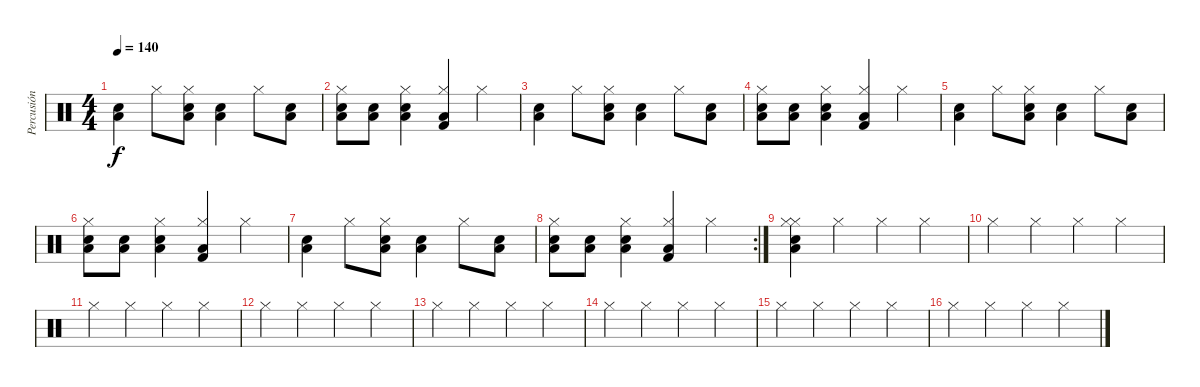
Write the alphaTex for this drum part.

\track ("Percusión" "Percusión") {instrument percussion}
\staff {score}
\articulation defaults
\ts (4 4)
\tempo 140
\clef neutral
\ks c
("Low Tom (hit)" "Snare (hit) 2").4{dy f} "Hi-Hat (closed)".8 ("Hi-Hat (closed)" "Snare (hit) 2" "Low Tom (hit)").8 ("Low Tom (hit)" "Snare (hit) 2").4 "Hi-Hat (closed)".8 ("Snare (hit) 2" "Low Tom (hit)").8 |
("Hi-Hat (closed)" "Snare (hit) 2" "Low Tom (hit)").8 ("Snare (hit) 2" "Low Tom (hit)").8 ("Snare (hit) 2" "Low Tom (hit)" "Hi-Hat (closed)").4 ("Low Tom (hit)" "Kick (hit) 2" "Hi-Hat (closed)").4 "Hi-Hat (closed)".4 |
("Low Tom (hit)" "Snare (hit) 2").4 "Hi-Hat (closed)".8 ("Hi-Hat (closed)" "Snare (hit) 2" "Low Tom (hit)").8 ("Low Tom (hit)" "Snare (hit) 2").4 "Hi-Hat (closed)".8 ("Snare (hit) 2" "Low Tom (hit)").8 |
("Hi-Hat (closed)" "Snare (hit) 2" "Low Tom (hit)").8 ("Snare (hit) 2" "Low Tom (hit)").8 ("Snare (hit) 2" "Low Tom (hit)" "Hi-Hat (closed)").4 ("Low Tom (hit)" "Kick (hit) 2" "Hi-Hat (closed)").4 "Hi-Hat (closed)".4 |
("Low Tom (hit)" "Snare (hit) 2").4 "Hi-Hat (closed)".8 ("Hi-Hat (closed)" "Snare (hit) 2" "Low Tom (hit)").8 ("Low Tom (hit)" "Snare (hit) 2").4 "Hi-Hat (closed)".8 ("Snare (hit) 2" "Low Tom (hit)").8 |
("Hi-Hat (closed)" "Snare (hit) 2" "Low Tom (hit)").8 ("Snare (hit) 2" "Low Tom (hit)").8 ("Snare (hit) 2" "Low Tom (hit)" "Hi-Hat (closed)").4 ("Low Tom (hit)" "Kick (hit) 2" "Hi-Hat (closed)").4 "Hi-Hat (closed)".4 |
("Low Tom (hit)" "Snare (hit) 2").4 "Hi-Hat (closed)".8 ("Hi-Hat (closed)" "Snare (hit) 2" "Low Tom (hit)").8 ("Low Tom (hit)" "Snare (hit) 2").4 "Hi-Hat (closed)".8 ("Snare (hit) 2" "Low Tom (hit)").8 |
\rc 2
("Hi-Hat (closed)" "Snare (hit) 2" "Low Tom (hit)").8 ("Snare (hit) 2" "Low Tom (hit)").8 ("Snare (hit) 2" "Low Tom (hit)" "Hi-Hat (closed)").4 ("Low Tom (hit)" "Kick (hit) 2" "Hi-Hat (closed)").4 "Hi-Hat (closed)".4 |
("Hi-Hat (closed)" "Low Tom (hit)" "Hi-Hat (closed)" "Snare (hit) 2").4 "Hi-Hat (closed)".4 "Hi-Hat (closed)".4 "Hi-Hat (closed)".4 |
"Hi-Hat (closed)".4 "Hi-Hat (closed)".4 "Hi-Hat (closed)".4 "Hi-Hat (closed)".4 |
"Hi-Hat (closed)".4 "Hi-Hat (closed)".4 "Hi-Hat (closed)".4 "Hi-Hat (closed)".4 |
"Hi-Hat (closed)".4 "Hi-Hat (closed)".4 "Hi-Hat (closed)".4 "Hi-Hat (closed)".4 |
"Hi-Hat (closed)".4 "Hi-Hat (closed)".4 "Hi-Hat (closed)".4 "Hi-Hat (closed)".4 |
"Hi-Hat (closed)".4 "Hi-Hat (closed)".4 "Hi-Hat (closed)".4 "Hi-Hat (closed)".4 |
"Hi-Hat (closed)".4 "Hi-Hat (closed)".4 "Hi-Hat (closed)".4 "Hi-Hat (closed)".4 |
"Hi-Hat (closed)".4 "Hi-Hat (closed)".4 "Hi-Hat (closed)".4 "Hi-Hat (closed)".4
